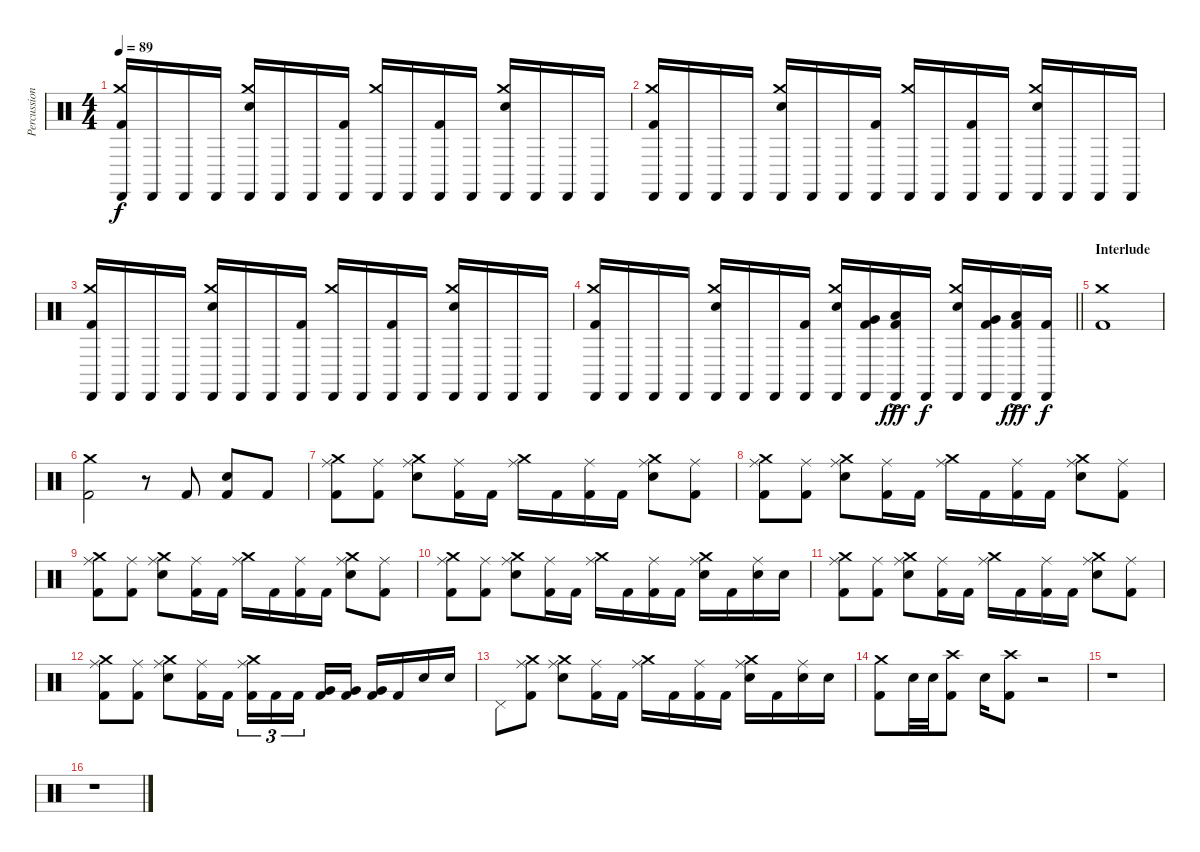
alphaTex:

\track ("Percussions" "Percussion") {instrument percussion}
\staff {score}
\articulation defaults
\ts (4 4)
\tempo 89
\clef neutral
\ks c
("Crash medium (hit)" "Cabasa (hit)" "Kick (hit) 2").16{dy f} "Cabasa (hit)".16 "Cabasa (hit)".16 "Cabasa (hit)".16 ("Crash medium (hit)" "Cabasa (hit)" "Electric Snare (hit)").16 "Cabasa (hit)".16 "Cabasa (hit)".16 ("Cabasa (hit)" "Kick (hit) 2").16 ("Crash medium (hit)" "Cabasa (hit)").16 "Cabasa (hit)".16 ("Cabasa (hit)" "Kick (hit) 2").16 "Cabasa (hit)".16 ("Crash medium (hit)" "Cabasa (hit)" "Electric Snare (hit)").16 "Cabasa (hit)".16 "Cabasa (hit)".16 "Cabasa (hit)".16 |
("Crash medium (hit)" "Cabasa (hit)" "Kick (hit) 2").16 "Cabasa (hit)".16 "Cabasa (hit)".16 "Cabasa (hit)".16 ("Crash medium (hit)" "Cabasa (hit)" "Electric Snare (hit)").16 "Cabasa (hit)".16 "Cabasa (hit)".16 ("Cabasa (hit)" "Kick (hit) 2").16 ("Crash medium (hit)" "Cabasa (hit)").16 "Cabasa (hit)".16 ("Cabasa (hit)" "Kick (hit) 2").16 "Cabasa (hit)".16 ("Crash medium (hit)" "Cabasa (hit)" "Electric Snare (hit)").16 "Cabasa (hit)".16 "Cabasa (hit)".16 "Cabasa (hit)".16 |
("Crash medium (hit)" "Cabasa (hit)" "Kick (hit) 2").16 "Cabasa (hit)".16 "Cabasa (hit)".16 "Cabasa (hit)".16 ("Crash medium (hit)" "Cabasa (hit)" "Electric Snare (hit)").16 "Cabasa (hit)".16 "Cabasa (hit)".16 ("Cabasa (hit)" "Kick (hit) 2").16 ("Crash medium (hit)" "Cabasa (hit)").16 "Cabasa (hit)".16 ("Cabasa (hit)" "Kick (hit) 2").16 "Cabasa (hit)".16 ("Crash medium (hit)" "Cabasa (hit)" "Electric Snare (hit)").16 "Cabasa (hit)".16 "Cabasa (hit)".16 "Cabasa (hit)".16 |
\barLineRight lightlight
("Crash medium (hit)" "Cabasa (hit)" "Kick (hit) 2").16 "Cabasa (hit)".16 "Cabasa (hit)".16 "Cabasa (hit)".16 ("Crash medium (hit)" "Cabasa (hit)" "Electric Snare (hit)").16 "Cabasa (hit)".16 "Cabasa (hit)".16 ("Cabasa (hit)" "Kick (hit) 2").16 ("Crash medium (hit)" "Cabasa (hit)" "Electric Snare (hit)").16 ("Cabasa (hit)" "Very Low Tom (hit)" "Kick (hit) 2").16 ("Cabasa (hit)" "Low Floor Tom (hit)"{ac} "Kick (hit) 2").16{dy fff} "Cabasa (hit)".16{dy f} ("Crash medium (hit)" "Cabasa (hit)" "Electric Snare (hit)").16 ("Cabasa (hit)" "Very Low Tom (hit)" "Kick (hit) 2").16 ("Cabasa (hit)" "Low Floor Tom (hit)"{ac} "Kick (hit) 2").16{dy fff} ("Cabasa (hit)" "Kick (hit) 2").16{dy f} |
\section ("" "Interlude")
("Crash medium (hit)" "Kick (hit) 2").1 |
("Crash medium (hit)" "Kick (hit) 2").2 r.8 "Kick (hit) 2".8 ("Electric Snare (hit)" "Kick (hit) 2").8 "Kick (hit) 2".8 |
("Crash medium (hit)" "Ride (middle)" "Kick (hit) 2").8 ("Ride (middle)" "Kick (hit) 2").8 ("Crash medium (hit)" "Ride (middle)" "Electric Snare (hit)").8 ("Ride (middle)" "Kick (hit) 2").16 "Kick (hit) 2".16 ("Crash medium (hit)" "Ride (middle)").16 "Kick (hit) 2".16 ("Ride (middle)" "Kick (hit) 2").16 "Kick (hit) 2".16 ("Crash medium (hit)" "Ride (middle)" "Electric Snare (hit)").8 ("Ride (middle)" "Kick (hit) 2").8 |
("Crash medium (hit)" "Ride (middle)" "Kick (hit) 2").8 ("Ride (middle)" "Kick (hit) 2").8 ("Crash medium (hit)" "Ride (middle)" "Electric Snare (hit)").8 ("Ride (middle)" "Kick (hit) 2").16 "Kick (hit) 2".16 ("Crash medium (hit)" "Ride (middle)").16 "Kick (hit) 2".16 ("Ride (middle)" "Kick (hit) 2").16 "Kick (hit) 2".16 ("Crash medium (hit)" "Ride (middle)" "Electric Snare (hit)").8 ("Ride (middle)" "Kick (hit) 2").8 |
("Crash medium (hit)" "Ride (middle)" "Kick (hit) 2").8 ("Ride (middle)" "Kick (hit) 2").8 ("Crash medium (hit)" "Ride (middle)" "Electric Snare (hit)").8 ("Ride (middle)" "Kick (hit) 2").16 "Kick (hit) 2".16 ("Crash medium (hit)" "Ride (middle)").16 "Kick (hit) 2".16 ("Ride (middle)" "Kick (hit) 2").16 "Kick (hit) 2".16 ("Crash medium (hit)" "Ride (middle)" "Electric Snare (hit)").8 ("Ride (middle)" "Kick (hit) 2").8 |
("Crash medium (hit)" "Ride (middle)" "Kick (hit) 2").8 ("Ride (middle)" "Kick (hit) 2").8 ("Crash medium (hit)" "Ride (middle)" "Electric Snare (hit)").8 ("Ride (middle)" "Kick (hit) 2").16 "Kick (hit) 2".16 ("Crash medium (hit)" "Ride (middle)").16 "Kick (hit) 2".16 ("Ride (middle)" "Kick (hit) 2").16 "Kick (hit) 2".16 ("Crash medium (hit)" "Ride (middle)" "Electric Snare (hit)").16 "Kick (hit) 2".16 ("Ride (middle)" "Electric Snare (hit)").16 "Electric Snare (hit)".16 |
("Crash medium (hit)" "Ride (middle)" "Kick (hit) 2").8 ("Ride (middle)" "Kick (hit) 2").8 ("Crash medium (hit)" "Ride (middle)" "Electric Snare (hit)").8 ("Ride (middle)" "Kick (hit) 2").16 "Kick (hit) 2".16 ("Crash medium (hit)" "Ride (middle)").16 "Kick (hit) 2".16 ("Ride (middle)" "Kick (hit) 2").16 "Kick (hit) 2".16 ("Crash medium (hit)" "Ride (middle)" "Electric Snare (hit)").8 ("Ride (middle)" "Kick (hit) 2").8 |
("Crash medium (hit)" "Ride (middle)" "Kick (hit) 2").8 ("Ride (middle)" "Kick (hit) 2").8 ("Crash medium (hit)" "Ride (middle)" "Electric Snare (hit)").8 ("Ride (middle)" "Kick (hit) 2").16 "Kick (hit) 2".16 ("Crash medium (hit)" "Ride (middle)" "Kick (hit) 2").16{tu (3 2)} "Kick (hit) 2".16{tu (3 2)} "Kick (hit) 2".16{tu (3 2) beam splitsecondary} ("Very Low Tom (hit)" "Kick (hit) 2").16 ("Very Low Tom (hit)" "Kick (hit) 2").16 ("Very Low Tom (hit)" "Kick (hit) 2").16 "Kick (hit) 2".16 "Electric Snare (hit)".16 "Electric Snare (hit)".16 |
"Pedal Hi-Hat (hit)".8 ("Crash medium (hit)" "Ride (middle)" "Kick (hit) 2").8 ("Crash medium (hit)" "Ride (middle)" "Electric Snare (hit)").8 ("Ride (middle)" "Kick (hit) 2").16 "Kick (hit) 2".16 ("Crash medium (hit)" "Ride (middle)").16 "Kick (hit) 2".16 ("Ride (middle)" "Kick (hit) 2").16 "Kick (hit) 2".16 ("Crash medium (hit)" "Ride (middle)" "Electric Snare (hit)").16 "Kick (hit) 2".16 ("Ride (middle)" "Electric Snare (hit)").16 "Electric Snare (hit)".16 |
("Crash medium (hit)" "Kick (hit) 2").8 "Electric Snare (hit)".32 "Electric Snare (hit)".32 ("Crash high (hit)" "Kick (hit) 2").8 "Electric Snare (hit)".16 ("Crash high (hit)" "Kick (hit) 2").8 r.2 |
r.1 |
r.1
